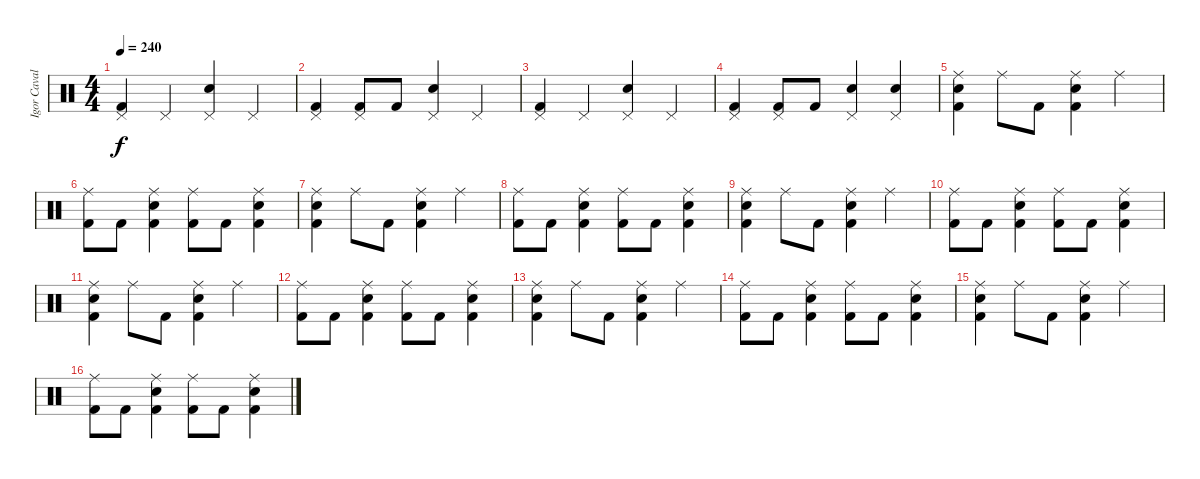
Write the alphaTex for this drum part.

\track ("Igor Cavalera" "Igor Caval") {instrument percussion}
\staff {score}
\articulation defaults
\ts (4 4)
\tempo 240
\clef neutral
\ks c
("Kick (hit) 2" "Pedal Hi-Hat (hit)").4{dy f} "Pedal Hi-Hat (hit)".4 ("Snare (hit) 2" "Pedal Hi-Hat (hit)").4 "Pedal Hi-Hat (hit)".4 |
("Kick (hit) 2" "Pedal Hi-Hat (hit)").4 ("Kick (hit) 2" "Pedal Hi-Hat (hit)").8 "Kick (hit) 2".8 ("Snare (hit) 2" "Pedal Hi-Hat (hit)").4 "Pedal Hi-Hat (hit)".4 |
("Kick (hit) 2" "Pedal Hi-Hat (hit)").4 "Pedal Hi-Hat (hit)".4 ("Snare (hit) 2" "Pedal Hi-Hat (hit)").4 "Pedal Hi-Hat (hit)".4 |
("Kick (hit) 2" "Pedal Hi-Hat (hit)").4 ("Kick (hit) 2" "Pedal Hi-Hat (hit)").8 "Kick (hit) 2".8 ("Snare (hit) 2" "Pedal Hi-Hat (hit)").4 ("Snare (hit) 2" "Pedal Hi-Hat (hit)").4 |
\section ("" "")
("Kick (hit) 2" "Snare (hit) 2" "Ride (middle)").4 "Ride (middle)".8 "Kick (hit) 2".8 ("Kick (hit) 2" "Snare (hit) 2" "Ride (middle)").4 "Ride (middle)".4 |
("Kick (hit) 2" "Ride (middle)").8 "Kick (hit) 2".8 ("Kick (hit) 2" "Snare (hit) 2" "Ride (middle)").4 ("Kick (hit) 2" "Ride (middle)").8 "Kick (hit) 2".8 ("Kick (hit) 2" "Snare (hit) 2" "Ride (middle)").4 |
("Kick (hit) 2" "Snare (hit) 2" "Ride (middle)").4 "Ride (middle)".8 "Kick (hit) 2".8 ("Kick (hit) 2" "Snare (hit) 2" "Ride (middle)").4 "Ride (middle)".4 |
("Kick (hit) 2" "Ride (middle)").8 "Kick (hit) 2".8 ("Kick (hit) 2" "Snare (hit) 2" "Ride (middle)").4 ("Kick (hit) 2" "Ride (middle)").8 "Kick (hit) 2".8 ("Kick (hit) 2" "Snare (hit) 2" "Ride (middle)").4 |
("Kick (hit) 2" "Snare (hit) 2" "Ride (middle)").4 "Ride (middle)".8 "Kick (hit) 2".8 ("Kick (hit) 2" "Snare (hit) 2" "Ride (middle)").4 "Ride (middle)".4 |
("Kick (hit) 2" "Ride (middle)").8 "Kick (hit) 2".8 ("Kick (hit) 2" "Snare (hit) 2" "Ride (middle)").4 ("Kick (hit) 2" "Ride (middle)").8 "Kick (hit) 2".8 ("Kick (hit) 2" "Snare (hit) 2" "Ride (middle)").4 |
("Kick (hit) 2" "Snare (hit) 2" "Ride (middle)").4 "Ride (middle)".8 "Kick (hit) 2".8 ("Kick (hit) 2" "Snare (hit) 2" "Ride (middle)").4 "Ride (middle)".4 |
("Kick (hit) 2" "Ride (middle)").8 "Kick (hit) 2".8 ("Kick (hit) 2" "Snare (hit) 2" "Ride (middle)").4 ("Kick (hit) 2" "Ride (middle)").8 "Kick (hit) 2".8 ("Kick (hit) 2" "Snare (hit) 2" "Ride (middle)").4 |
("Kick (hit) 2" "Snare (hit) 2" "Ride (middle)").4 "Ride (middle)".8 "Kick (hit) 2".8 ("Kick (hit) 2" "Snare (hit) 2" "Ride (middle)").4 "Ride (middle)".4 |
("Kick (hit) 2" "Ride (middle)").8 "Kick (hit) 2".8 ("Kick (hit) 2" "Snare (hit) 2" "Ride (middle)").4 ("Kick (hit) 2" "Ride (middle)").8 "Kick (hit) 2".8 ("Kick (hit) 2" "Snare (hit) 2" "Ride (middle)").4 |
("Kick (hit) 2" "Snare (hit) 2" "Ride (middle)").4 "Ride (middle)".8 "Kick (hit) 2".8 ("Kick (hit) 2" "Snare (hit) 2" "Ride (middle)").4 "Ride (middle)".4 |
("Kick (hit) 2" "Ride (middle)").8 "Kick (hit) 2".8 ("Kick (hit) 2" "Snare (hit) 2" "Ride (middle)").4 ("Kick (hit) 2" "Ride (middle)").8 "Kick (hit) 2".8 ("Kick (hit) 2" "Snare (hit) 2" "Ride (middle)").4
